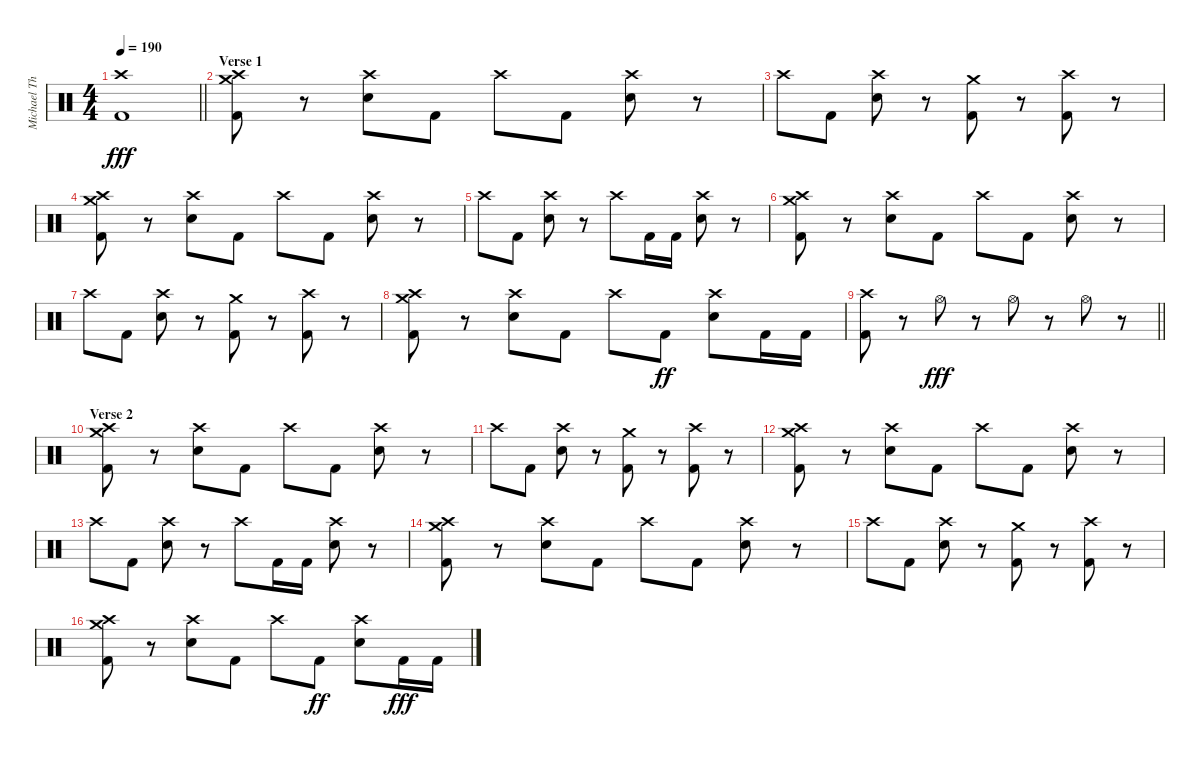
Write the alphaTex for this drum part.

\track ("Michael Thomas Жжёт!" "Michael Th") {instrument percussion}
\staff {score}
\articulation defaults
\ts (4 4)
\tempo 190
\clef neutral
\barLineRight lightlight
\ks c
("Crash high (hit)" "Kick (hit) 2").1{dy fff} |
\section ("" "Verse 1")
("Crash high (hit)" "Crash medium (hit)" "Kick (hit) 2").8 r.8 ("Crash high (hit)" "Electric Snare (hit)").8 "Kick (hit) 2".8 "Crash high (hit)".8 "Kick (hit) 2".8 ("Crash high (hit)" "Electric Snare (hit)").8 r.8 |
"Crash high (hit)".8 "Kick (hit) 2".8 ("Crash high (hit)" "Electric Snare (hit)").8 r.8 ("Crash medium (hit)" "Kick (hit) 2").8 r.8 ("Crash high (hit)" "Kick (hit) 2").8 r.8 |
("Crash high (hit)" "Crash medium (hit)" "Kick (hit) 2").8 r.8 ("Crash high (hit)" "Electric Snare (hit)").8 "Kick (hit) 2".8 "Crash high (hit)".8 "Kick (hit) 2".8 ("Crash high (hit)" "Electric Snare (hit)").8 r.8 |
"Crash high (hit)".8 "Kick (hit) 2".8 ("Crash high (hit)" "Electric Snare (hit)").8 r.8 "Crash high (hit)".8 "Kick (hit) 2".16 "Kick (hit) 2".16 ("Crash high (hit)" "Electric Snare (hit)").8 r.8 |
("Crash high (hit)" "Crash medium (hit)" "Kick (hit) 2").8 r.8 ("Crash high (hit)" "Electric Snare (hit)").8 "Kick (hit) 2".8 "Crash high (hit)".8 "Kick (hit) 2".8 ("Crash high (hit)" "Electric Snare (hit)").8 r.8 |
"Crash high (hit)".8 "Kick (hit) 2".8 ("Crash high (hit)" "Electric Snare (hit)").8 r.8 ("Crash medium (hit)" "Kick (hit) 2").8 r.8 ("Crash high (hit)" "Kick (hit) 2").8 r.8 |
("Crash high (hit)" "Crash medium (hit)" "Kick (hit) 2").8 r.8 ("Crash high (hit)" "Electric Snare (hit)").8 "Kick (hit) 2".8 "Crash high (hit)".8 "Kick (hit) 2".8{dy ff} ("Crash high (hit)" "Electric Snare (hit)").8 "Kick (hit) 2".16 "Kick (hit) 2".16 |
\barLineRight lightlight
("Crash high (hit)" "Kick (hit) 2").8 r.8 "Hi-Hat (open)".8{dy fff} r.8 "Hi-Hat (open)".8 r.8 "Hi-Hat (open)".8 r.8 |
\section ("" "Verse 2")
("Crash high (hit)" "Crash medium (hit)" "Kick (hit) 2").8 r.8 ("Crash high (hit)" "Electric Snare (hit)").8 "Kick (hit) 2".8 "Crash high (hit)".8 "Kick (hit) 2".8 ("Crash high (hit)" "Electric Snare (hit)").8 r.8 |
"Crash high (hit)".8 "Kick (hit) 2".8 ("Crash high (hit)" "Electric Snare (hit)").8 r.8 ("Crash medium (hit)" "Kick (hit) 2").8 r.8 ("Crash high (hit)" "Kick (hit) 2").8 r.8 |
("Crash high (hit)" "Crash medium (hit)" "Kick (hit) 2").8 r.8 ("Crash high (hit)" "Electric Snare (hit)").8 "Kick (hit) 2".8 "Crash high (hit)".8 "Kick (hit) 2".8 ("Crash high (hit)" "Electric Snare (hit)").8 r.8 |
"Crash high (hit)".8 "Kick (hit) 2".8 ("Crash high (hit)" "Electric Snare (hit)").8 r.8 "Crash high (hit)".8 "Kick (hit) 2".16 "Kick (hit) 2".16 ("Crash high (hit)" "Electric Snare (hit)").8 r.8 |
("Crash high (hit)" "Crash medium (hit)" "Kick (hit) 2").8 r.8 ("Crash high (hit)" "Electric Snare (hit)").8 "Kick (hit) 2".8 "Crash high (hit)".8 "Kick (hit) 2".8 ("Crash high (hit)" "Electric Snare (hit)").8 r.8 |
"Crash high (hit)".8 "Kick (hit) 2".8 ("Crash high (hit)" "Electric Snare (hit)").8 r.8 ("Crash medium (hit)" "Kick (hit) 2").8 r.8 ("Crash high (hit)" "Kick (hit) 2").8 r.8 |
("Crash high (hit)" "Crash medium (hit)" "Kick (hit) 2").8 r.8 ("Crash high (hit)" "Electric Snare (hit)").8 "Kick (hit) 2".8 "Crash high (hit)".8 "Kick (hit) 2".8{dy ff} ("Crash high (hit)" "Electric Snare (hit)").8 "Kick (hit) 2".16{dy fff} "Kick (hit) 2".16
